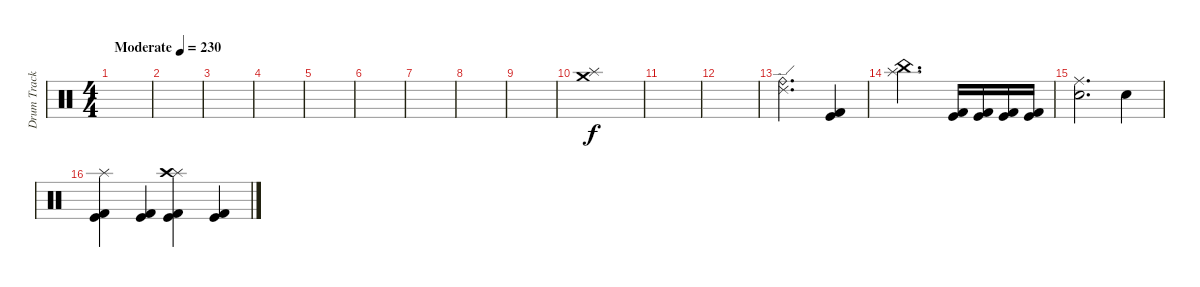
\track ("Drum Track" "Drum Track") {instrument percussion}
\staff {score}
\articulation defaults
\ts (4 4)
\tempo (230 "Moderate")
\clef neutral
\ks c
|
|
|
|
|
|
|
|
|
("Crash medium (hit)" "Splash (hit)").1 |
|
|
("Ride (bell)" "Ride (edge) 2").2{d} ("Kick (hit) 2" "Kick (hit)").4 |
("Splash (hit)" "China (hit)").2{d} ("Kick (hit) 2" "Kick (hit)").16 ("Kick (hit) 2" "Kick (hit)").16 ("Kick (hit) 2" "Kick (hit)").16 ("Kick (hit) 2" "Kick (hit)").16 |
("Ride (middle)" "Electric Snare (hit)").2{d} "Electric Snare (hit)".4 |
("Splash (hit)" "Kick (hit) 2" "Kick (hit)").4 ("Kick (hit) 2" "Kick (hit)").4 ("Splash (hit)" "Crash high (hit)" "Kick (hit) 2" "Kick (hit)").4 ("Kick (hit) 2" "Kick (hit)").4
